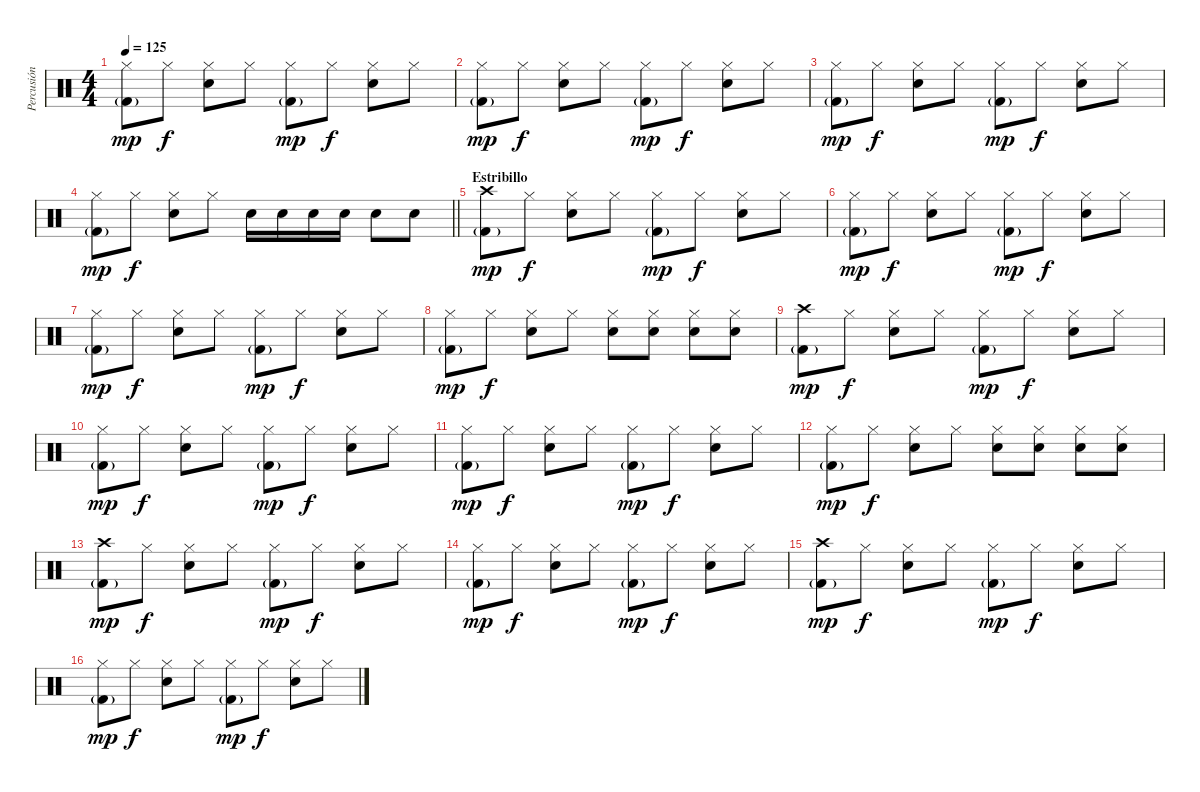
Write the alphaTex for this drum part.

\track ("Percusión" "Percusión") {instrument percussion}
\staff {score}
\articulation defaults
\ts (4 4)
\tempo 125
\clef neutral
\ks c
("Hi-Hat (closed)" "Kick (hit) 2"{g}).8{dy mp} "Hi-Hat (closed)".8{dy f} ("Hi-Hat (closed)" "Snare (hit) 2").8 "Hi-Hat (closed)".8 ("Hi-Hat (closed)" "Kick (hit) 2"{g}).8{dy mp} "Hi-Hat (closed)".8{dy f} ("Hi-Hat (closed)" "Snare (hit) 2").8 "Hi-Hat (closed)".8 |
("Hi-Hat (closed)" "Kick (hit) 2"{g}).8{dy mp} "Hi-Hat (closed)".8{dy f} ("Hi-Hat (closed)" "Snare (hit) 2").8 "Hi-Hat (closed)".8 ("Hi-Hat (closed)" "Kick (hit) 2"{g}).8{dy mp} "Hi-Hat (closed)".8{dy f} ("Hi-Hat (closed)" "Snare (hit) 2").8 "Hi-Hat (closed)".8 |
("Hi-Hat (closed)" "Kick (hit) 2"{g}).8{dy mp} "Hi-Hat (closed)".8{dy f} ("Hi-Hat (closed)" "Snare (hit) 2").8 "Hi-Hat (closed)".8 ("Hi-Hat (closed)" "Kick (hit) 2"{g}).8{dy mp} "Hi-Hat (closed)".8{dy f} ("Hi-Hat (closed)" "Snare (hit) 2").8 "Hi-Hat (closed)".8 |
\barLineRight lightlight
("Hi-Hat (closed)" "Kick (hit) 2"{g}).8{dy mp} "Hi-Hat (closed)".8{dy f} ("Hi-Hat (closed)" "Snare (hit) 2").8 "Hi-Hat (closed)".8 "Snare (hit) 2".16 "Snare (hit) 2".16 "Snare (hit) 2".16 "Snare (hit) 2".16 "Snare (hit) 2".8 "Snare (hit) 2".8 |
\section ("" "Estribillo")
("Crash high (hit)" "Kick (hit) 2"{g}).8{dy mp} "Hi-Hat (closed)".8{dy f} ("Hi-Hat (closed)" "Snare (hit) 2").8 "Hi-Hat (closed)".8 ("Hi-Hat (closed)" "Kick (hit) 2"{g}).8{dy mp} "Hi-Hat (closed)".8{dy f} ("Hi-Hat (closed)" "Snare (hit) 2").8 "Hi-Hat (closed)".8 |
("Hi-Hat (closed)" "Kick (hit) 2"{g}).8{dy mp} "Hi-Hat (closed)".8{dy f} ("Hi-Hat (closed)" "Snare (hit) 2").8 "Hi-Hat (closed)".8 ("Hi-Hat (closed)" "Kick (hit) 2"{g}).8{dy mp} "Hi-Hat (closed)".8{dy f} ("Hi-Hat (closed)" "Snare (hit) 2").8 "Hi-Hat (closed)".8 |
("Hi-Hat (closed)" "Kick (hit) 2"{g}).8{dy mp} "Hi-Hat (closed)".8{dy f} ("Hi-Hat (closed)" "Snare (hit) 2").8 "Hi-Hat (closed)".8 ("Hi-Hat (closed)" "Kick (hit) 2"{g}).8{dy mp} "Hi-Hat (closed)".8{dy f} ("Hi-Hat (closed)" "Snare (hit) 2").8 "Hi-Hat (closed)".8 |
("Hi-Hat (closed)" "Kick (hit) 2"{g}).8{dy mp} "Hi-Hat (closed)".8{dy f} ("Hi-Hat (closed)" "Snare (hit) 2").8 "Hi-Hat (closed)".8 ("Hi-Hat (closed)" "Snare (hit) 2").8 ("Hi-Hat (closed)" "Snare (hit) 2").8 ("Hi-Hat (closed)" "Snare (hit) 2").8 ("Hi-Hat (closed)" "Snare (hit) 2").8 |
("Crash high (hit)" "Kick (hit) 2"{g}).8{dy mp} "Hi-Hat (closed)".8{dy f} ("Hi-Hat (closed)" "Snare (hit) 2").8 "Hi-Hat (closed)".8 ("Hi-Hat (closed)" "Kick (hit) 2"{g}).8{dy mp} "Hi-Hat (closed)".8{dy f} ("Hi-Hat (closed)" "Snare (hit) 2").8 "Hi-Hat (closed)".8 |
("Hi-Hat (closed)" "Kick (hit) 2"{g}).8{dy mp} "Hi-Hat (closed)".8{dy f} ("Hi-Hat (closed)" "Snare (hit) 2").8 "Hi-Hat (closed)".8 ("Hi-Hat (closed)" "Kick (hit) 2"{g}).8{dy mp} "Hi-Hat (closed)".8{dy f} ("Hi-Hat (closed)" "Snare (hit) 2").8 "Hi-Hat (closed)".8 |
("Hi-Hat (closed)" "Kick (hit) 2"{g}).8{dy mp} "Hi-Hat (closed)".8{dy f} ("Hi-Hat (closed)" "Snare (hit) 2").8 "Hi-Hat (closed)".8 ("Hi-Hat (closed)" "Kick (hit) 2"{g}).8{dy mp} "Hi-Hat (closed)".8{dy f} ("Hi-Hat (closed)" "Snare (hit) 2").8 "Hi-Hat (closed)".8 |
("Hi-Hat (closed)" "Kick (hit) 2"{g}).8{dy mp} "Hi-Hat (closed)".8{dy f} ("Hi-Hat (closed)" "Snare (hit) 2").8 "Hi-Hat (closed)".8 ("Hi-Hat (closed)" "Snare (hit) 2").8 ("Hi-Hat (closed)" "Snare (hit) 2").8 ("Hi-Hat (closed)" "Snare (hit) 2").8 ("Hi-Hat (closed)" "Snare (hit) 2").8 |
("Crash high (hit)" "Kick (hit) 2"{g}).8{dy mp} "Hi-Hat (closed)".8{dy f} ("Hi-Hat (closed)" "Snare (hit) 2").8 "Hi-Hat (closed)".8 ("Hi-Hat (closed)" "Kick (hit) 2"{g}).8{dy mp} "Hi-Hat (closed)".8{dy f} ("Hi-Hat (closed)" "Snare (hit) 2").8 "Hi-Hat (closed)".8 |
("Hi-Hat (closed)" "Kick (hit) 2"{g}).8{dy mp} "Hi-Hat (closed)".8{dy f} ("Hi-Hat (closed)" "Snare (hit) 2").8 "Hi-Hat (closed)".8 ("Hi-Hat (closed)" "Kick (hit) 2"{g}).8{dy mp} "Hi-Hat (closed)".8{dy f} ("Hi-Hat (closed)" "Snare (hit) 2").8 "Hi-Hat (closed)".8 |
("Crash high (hit)" "Kick (hit) 2"{g}).8{dy mp} "Hi-Hat (closed)".8{dy f} ("Hi-Hat (closed)" "Snare (hit) 2").8 "Hi-Hat (closed)".8 ("Hi-Hat (closed)" "Kick (hit) 2"{g}).8{dy mp} "Hi-Hat (closed)".8{dy f} ("Hi-Hat (closed)" "Snare (hit) 2").8 "Hi-Hat (closed)".8 |
("Hi-Hat (closed)" "Kick (hit) 2"{g}).8{dy mp} "Hi-Hat (closed)".8{dy f} ("Hi-Hat (closed)" "Snare (hit) 2").8 "Hi-Hat (closed)".8 ("Hi-Hat (closed)" "Kick (hit) 2"{g}).8{dy mp} "Hi-Hat (closed)".8{dy f} ("Hi-Hat (closed)" "Snare (hit) 2").8 "Hi-Hat (closed)".8
